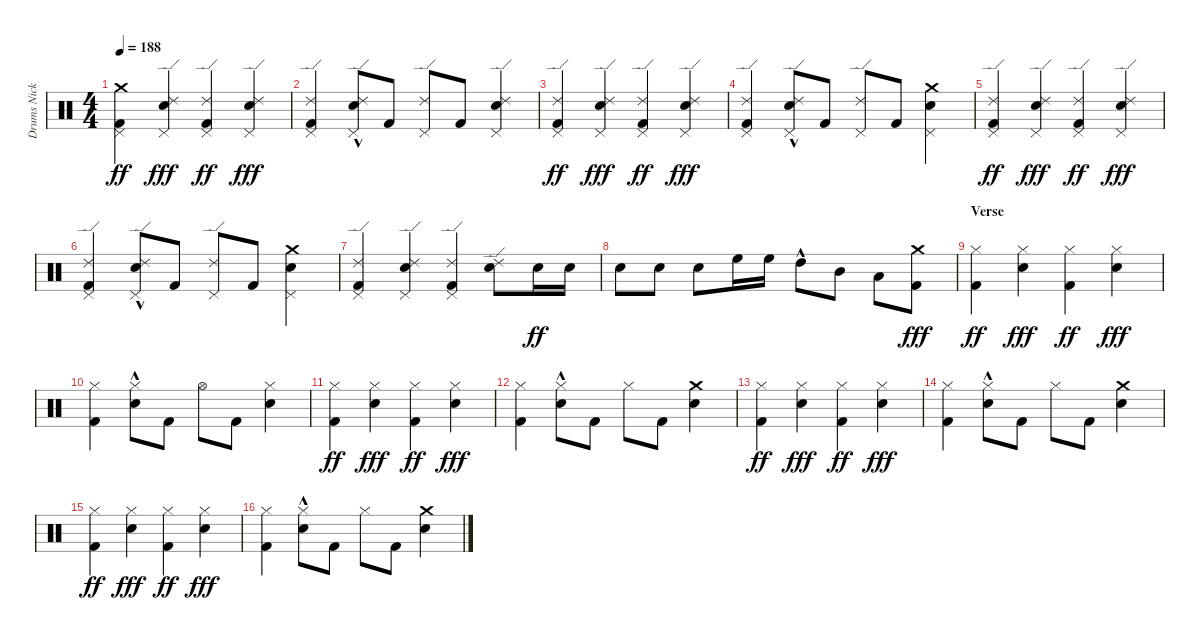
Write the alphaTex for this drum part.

\track ("Drums Nicko McBrain" "Drums Nick") {instrument percussion}
\staff {score}
\articulation defaults
\ts (4 4)
\tempo 188
\clef neutral
\ks c
("Crash medium (hit)" "Pedal Hi-Hat (hit)" "Kick (hit) 2").4{dy ff} ("Ride (edge) 2" "Electric Snare (hit)" "Pedal Hi-Hat (hit)").4{dy fff} ("Ride (edge) 2" "Pedal Hi-Hat (hit)" "Kick (hit) 2").4{dy ff} ("Ride (edge) 2" "Electric Snare (hit)" "Pedal Hi-Hat (hit)").4{dy fff} |
("Ride (edge) 2" "Pedal Hi-Hat (hit)" "Kick (hit) 2").4 ("Ride (edge) 2" "Electric Snare (hit)"{hac} "Pedal Hi-Hat (hit)").8 "Kick (hit) 2".8 ("Ride (edge) 2" "Pedal Hi-Hat (hit)").8 "Kick (hit) 2".8 ("Ride (edge) 2" "Electric Snare (hit)" "Pedal Hi-Hat (hit)").4 |
("Ride (edge) 2" "Pedal Hi-Hat (hit)" "Kick (hit) 2").4{dy ff} ("Ride (edge) 2" "Electric Snare (hit)" "Pedal Hi-Hat (hit)").4{dy fff} ("Ride (edge) 2" "Pedal Hi-Hat (hit)" "Kick (hit) 2").4{dy ff} ("Ride (edge) 2" "Electric Snare (hit)" "Pedal Hi-Hat (hit)").4{dy fff} |
("Ride (edge) 2" "Pedal Hi-Hat (hit)" "Kick (hit) 2").4 ("Ride (edge) 2" "Electric Snare (hit)"{hac} "Pedal Hi-Hat (hit)").8 "Kick (hit) 2".8 ("Ride (edge) 2" "Pedal Hi-Hat (hit)").8 "Kick (hit) 2".8 ("Crash medium (hit)" "Electric Snare (hit)" "Pedal Hi-Hat (hit)").4 |
("Ride (edge) 2" "Pedal Hi-Hat (hit)" "Kick (hit) 2").4{dy ff} ("Ride (edge) 2" "Electric Snare (hit)" "Pedal Hi-Hat (hit)").4{dy fff} ("Ride (edge) 2" "Pedal Hi-Hat (hit)" "Kick (hit) 2").4{dy ff} ("Ride (edge) 2" "Electric Snare (hit)" "Pedal Hi-Hat (hit)").4{dy fff} |
("Ride (edge) 2" "Pedal Hi-Hat (hit)" "Kick (hit) 2").4 ("Ride (edge) 2" "Electric Snare (hit)"{hac} "Pedal Hi-Hat (hit)").8 "Kick (hit) 2".8 ("Ride (edge) 2" "Pedal Hi-Hat (hit)").8 "Kick (hit) 2".8 ("Crash medium (hit)" "Electric Snare (hit)" "Pedal Hi-Hat (hit)").4 |
("Ride (edge) 2" "Pedal Hi-Hat (hit)" "Kick (hit) 2").4 ("Ride (edge) 2" "Electric Snare (hit)" "Pedal Hi-Hat (hit)").4 ("Ride (edge) 2" "Pedal Hi-Hat (hit)" "Kick (hit) 2").4 ("Ride (edge) 2" "Electric Snare (hit)").8 "Electric Snare (hit)".16{dy ff} "Electric Snare (hit)".16 |
"Electric Snare (hit)".8 "Electric Snare (hit)".8 "Electric Snare (hit)".8 "High Floor Tom (hit)".16 "High Floor Tom (hit)".16 "High Tom (hit)"{hac}.8 "Mid Tom (hit)".8 "Low Tom (hit)".8 ("Crash medium (hit)" "Kick (hit) 2").8{dy fff} |
\section ("" "Verse")
("Hi-Hat (closed)" "Kick (hit) 2").4{dy ff} ("Hi-Hat (closed)" "Electric Snare (hit)").4{dy fff} ("Hi-Hat (closed)" "Kick (hit) 2").4{dy ff} ("Hi-Hat (closed)" "Electric Snare (hit)").4{dy fff} |
("Hi-Hat (closed)" "Kick (hit) 2").4 ("Hi-Hat (closed)" "Electric Snare (hit)"{hac}).8 "Kick (hit) 2".8 "Hi-Hat (open)".8 "Kick (hit) 2".8 ("Hi-Hat (closed)" "Electric Snare (hit)").4 |
("Hi-Hat (closed)" "Kick (hit) 2").4{dy ff} ("Hi-Hat (closed)" "Electric Snare (hit)").4{dy fff} ("Hi-Hat (closed)" "Kick (hit) 2").4{dy ff} ("Hi-Hat (closed)" "Electric Snare (hit)").4{dy fff} |
("Hi-Hat (closed)" "Kick (hit) 2").4 ("Hi-Hat (closed)" "Electric Snare (hit)"{hac}).8 "Kick (hit) 2".8 "Hi-Hat (closed)".8 "Kick (hit) 2".8 ("Crash medium (hit)" "Electric Snare (hit)").4 |
("Hi-Hat (closed)" "Kick (hit) 2").4{dy ff} ("Hi-Hat (closed)" "Electric Snare (hit)").4{dy fff} ("Hi-Hat (closed)" "Kick (hit) 2").4{dy ff} ("Hi-Hat (closed)" "Electric Snare (hit)").4{dy fff} |
("Hi-Hat (closed)" "Kick (hit) 2").4 ("Hi-Hat (closed)" "Electric Snare (hit)"{hac}).8 "Kick (hit) 2".8 "Hi-Hat (closed)".8 "Kick (hit) 2".8 ("Crash medium (hit)" "Electric Snare (hit)").4 |
("Hi-Hat (closed)" "Kick (hit) 2").4{dy ff} ("Hi-Hat (closed)" "Electric Snare (hit)").4{dy fff} ("Hi-Hat (closed)" "Kick (hit) 2").4{dy ff} ("Hi-Hat (closed)" "Electric Snare (hit)").4{dy fff} |
("Hi-Hat (closed)" "Kick (hit) 2").4 ("Hi-Hat (closed)" "Electric Snare (hit)"{hac}).8 "Kick (hit) 2".8 "Hi-Hat (closed)".8 "Kick (hit) 2".8 ("Crash medium (hit)" "Electric Snare (hit)").4
